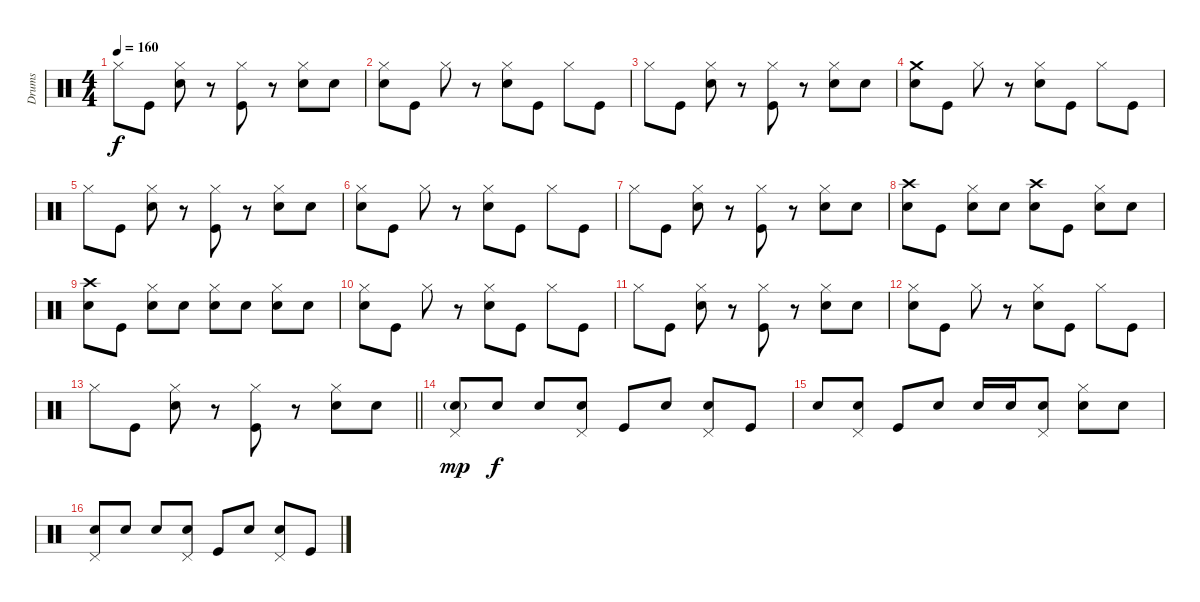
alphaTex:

\track ("Drums" "Drums") {instrument percussion}
\staff {score}
\articulation defaults
\ts (4 4)
\tempo 160
\clef neutral
\ks c "Hi-Hat (closed)".8{dy f} "Kick (hit)".8
("Hi-Hat (closed)" "Electric Snare (hit)").8 r.8 ("Hi-Hat (closed)" "Kick (hit)").8 r.8 ("Hi-Hat (closed)" "Electric Snare (hit)").8 "Snare (hit)".8 |
("Hi-Hat (closed)" "Electric Snare (hit)").8 "Kick (hit)".8 "Hi-Hat (closed)".8 r.8 ("Hi-Hat (closed)" "Electric Snare (hit)").8 "Kick (hit)".8 "Hi-Hat (closed)".8 "Kick (hit)".8 |
"Hi-Hat (closed)".8 "Kick (hit)".8 ("Hi-Hat (closed)" "Electric Snare (hit)").8 r.8 ("Hi-Hat (closed)" "Kick (hit)").8 r.8 ("Hi-Hat (closed)" "Electric Snare (hit)").8 "Snare (hit)".8 |
("Crash medium (hit)" "Electric Snare (hit)").8 "Kick (hit)".8 "Hi-Hat (closed)".8 r.8 ("Hi-Hat (closed)" "Electric Snare (hit)").8 "Kick (hit)".8 "Hi-Hat (closed)".8 "Kick (hit)".8 |
"Hi-Hat (closed)".8 "Kick (hit)".8 ("Hi-Hat (closed)" "Electric Snare (hit)").8 r.8 ("Hi-Hat (closed)" "Kick (hit)").8 r.8 ("Hi-Hat (closed)" "Electric Snare (hit)").8 "Snare (hit)".8 |
("Hi-Hat (closed)" "Electric Snare (hit)").8 "Kick (hit)".8 "Hi-Hat (closed)".8 r.8 ("Hi-Hat (closed)" "Electric Snare (hit)").8 "Kick (hit)".8 "Hi-Hat (closed)".8 "Kick (hit)".8 |
"Hi-Hat (closed)".8 "Kick (hit)".8 ("Hi-Hat (closed)" "Electric Snare (hit)").8 r.8 ("Hi-Hat (closed)" "Kick (hit)").8 r.8 ("Hi-Hat (closed)" "Electric Snare (hit)").8 "Snare (hit)".8 |
("Crash high (hit)" "Electric Snare (hit)").8 "Kick (hit)".8 ("Hi-Hat (closed)" "Snare (hit)").8 "Snare (hit)".8 ("Crash high (hit)" "Electric Snare (hit)").8 "Kick (hit)".8 ("Hi-Hat (closed)" "Snare (hit)").8 "Snare (hit)".8 |
("Crash high (hit)" "Electric Snare (hit)").8 "Kick (hit)".8 ("Hi-Hat (closed)" "Snare (hit)").8 "Snare (hit)".8 ("Hi-Hat (closed)" "Electric Snare (hit)").8 "Snare (hit)".8 ("Hi-Hat (closed)" "Electric Snare (hit)").8 "Snare (hit)".8 |
("Hi-Hat (closed)" "Electric Snare (hit)").8 "Kick (hit)".8 "Hi-Hat (closed)".8 r.8 ("Hi-Hat (closed)" "Electric Snare (hit)").8 "Kick (hit)".8 "Hi-Hat (closed)".8 "Kick (hit)".8 |
"Hi-Hat (closed)".8 "Kick (hit)".8 ("Hi-Hat (closed)" "Electric Snare (hit)").8 r.8 ("Hi-Hat (closed)" "Kick (hit)").8 r.8 ("Hi-Hat (closed)" "Electric Snare (hit)").8 "Snare (hit)".8 |
("Hi-Hat (closed)" "Electric Snare (hit)").8 "Kick (hit)".8 "Hi-Hat (closed)".8 r.8 ("Hi-Hat (closed)" "Electric Snare (hit)").8 "Kick (hit)".8 "Hi-Hat (closed)".8 "Kick (hit)".8 |
\barLineRight lightlight "Hi-Hat (closed)".8 "Kick (hit)".8
("Hi-Hat (closed)" "Electric Snare (hit)").8 r.8 ("Hi-Hat (closed)" "Kick (hit)").8 r.8 ("Hi-Hat (closed)" "Electric Snare (hit)").8 "Snare (hit)".8 |
("Pedal Hi-Hat (hit)" "Electric Snare (hit)"{g}).8{dy mp} "Snare (hit)".8{dy f} "Snare (hit)".8 ("Pedal Hi-Hat (hit)" "Electric Snare (hit)").8 "Kick (hit)".8 "Snare (hit)".8 ("Pedal Hi-Hat (hit)" "Electric Snare (hit)").8 "Kick (hit)".8 |
"Snare (hit)".8 ("Pedal Hi-Hat (hit)" "Electric Snare (hit)").8 "Kick (hit)".8 "Snare (hit)".8 "Electric Snare (hit)".16 "Electric Snare (hit)".16 ("Pedal Hi-Hat (hit)" "Electric Snare (hit)").8 ("Hi-Hat (closed)" "Electric Snare (hit)").8 "Snare (hit)".8 |
("Pedal Hi-Hat (hit)" "Electric Snare (hit)").8 "Snare (hit)".8 "Snare (hit)".8 ("Pedal Hi-Hat (hit)" "Electric Snare (hit)").8 "Kick (hit)".8 "Snare (hit)".8 ("Pedal Hi-Hat (hit)" "Electric Snare (hit)").8 "Kick (hit)".8
